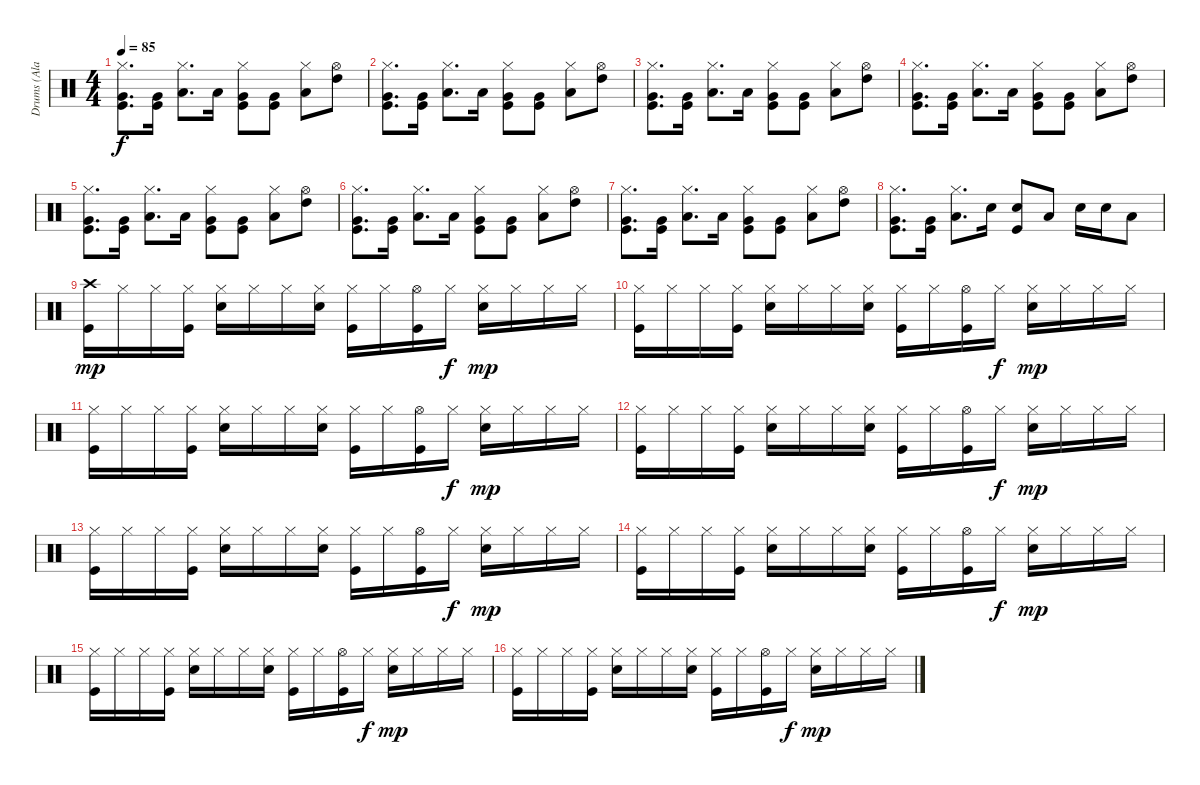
\track ("Drums (Alan White)" "Drums (Ala") {instrument percussion}
\staff {score}
\articulation defaults
\ts (4 4)
\tempo 85
\clef neutral
\ks c
("Hi-Hat (closed)" "Very Low Tom (hit)" "Kick (hit)").8{d dy f} ("Very Low Tom (hit)" "Kick (hit)").16 ("Hi-Hat (closed)" "Low Tom (hit)").8{d} "Low Tom (hit)".16 ("Hi-Hat (closed)" "Very Low Tom (hit)" "Kick (hit)").8 ("Very Low Tom (hit)" "Kick (hit)").8 ("Hi-Hat (closed)" "Low Tom (hit)").8 ("Hi-Hat (open)" "High Tom (hit)").8 |
("Hi-Hat (closed)" "Very Low Tom (hit)" "Kick (hit)").8{d} ("Very Low Tom (hit)" "Kick (hit)").16 ("Hi-Hat (closed)" "Low Tom (hit)").8{d} "Low Tom (hit)".16 ("Hi-Hat (closed)" "Very Low Tom (hit)" "Kick (hit)").8 ("Very Low Tom (hit)" "Kick (hit)").8 ("Hi-Hat (closed)" "Low Tom (hit)").8 ("Hi-Hat (open)" "High Tom (hit)").8 |
("Hi-Hat (closed)" "Very Low Tom (hit)" "Kick (hit)").8{d} ("Very Low Tom (hit)" "Kick (hit)").16 ("Hi-Hat (closed)" "Low Tom (hit)").8{d} "Low Tom (hit)".16 ("Hi-Hat (closed)" "Very Low Tom (hit)" "Kick (hit)").8 ("Very Low Tom (hit)" "Kick (hit)").8 ("Hi-Hat (closed)" "Low Tom (hit)").8 ("Hi-Hat (open)" "High Tom (hit)").8 |
("Hi-Hat (closed)" "Very Low Tom (hit)" "Kick (hit)").8{d} ("Very Low Tom (hit)" "Kick (hit)").16 ("Hi-Hat (closed)" "Low Tom (hit)").8{d} "Low Tom (hit)".16 ("Hi-Hat (closed)" "Very Low Tom (hit)" "Kick (hit)").8 ("Very Low Tom (hit)" "Kick (hit)").8 ("Hi-Hat (closed)" "Low Tom (hit)").8 ("Hi-Hat (open)" "High Tom (hit)").8 |
("Hi-Hat (closed)" "Very Low Tom (hit)" "Kick (hit)").8{d} ("Very Low Tom (hit)" "Kick (hit)").16 ("Hi-Hat (closed)" "Low Tom (hit)").8{d} "Low Tom (hit)".16 ("Hi-Hat (closed)" "Very Low Tom (hit)" "Kick (hit)").8 ("Very Low Tom (hit)" "Kick (hit)").8 ("Hi-Hat (closed)" "Low Tom (hit)").8 ("Hi-Hat (open)" "High Tom (hit)").8 |
("Hi-Hat (closed)" "Very Low Tom (hit)" "Kick (hit)").8{d} ("Very Low Tom (hit)" "Kick (hit)").16 ("Hi-Hat (closed)" "Low Tom (hit)").8{d} "Low Tom (hit)".16 ("Hi-Hat (closed)" "Very Low Tom (hit)" "Kick (hit)").8 ("Very Low Tom (hit)" "Kick (hit)").8 ("Hi-Hat (closed)" "Low Tom (hit)").8 ("Hi-Hat (open)" "High Tom (hit)").8 |
("Hi-Hat (closed)" "Very Low Tom (hit)" "Kick (hit)").8{d} ("Very Low Tom (hit)" "Kick (hit)").16 ("Hi-Hat (closed)" "Low Tom (hit)").8{d} "Low Tom (hit)".16 ("Hi-Hat (closed)" "Very Low Tom (hit)" "Kick (hit)").8 ("Very Low Tom (hit)" "Kick (hit)").8 ("Hi-Hat (closed)" "Low Tom (hit)").8 ("Hi-Hat (open)" "High Tom (hit)").8 |
("Hi-Hat (closed)" "Very Low Tom (hit)" "Kick (hit)").8{d} ("Very Low Tom (hit)" "Kick (hit)").16 ("Hi-Hat (closed)" "Low Tom (hit)").8{d} "Snare (hit) 2".16 ("Snare (hit) 2" "Kick (hit)").8 "Low Tom (hit)".8 "Snare (hit) 2".16 "Snare (hit) 2".16 "Low Tom (hit)".8 |
("Crash high (hit)" "Kick (hit)").16{dy mp} "Hi-Hat (closed)".16 "Hi-Hat (closed)".16 ("Hi-Hat (closed)" "Kick (hit)").16 ("Hi-Hat (closed)" "Snare (hit) 2").16 "Hi-Hat (closed)".16 "Hi-Hat (closed)".16 ("Hi-Hat (closed)" "Snare (hit) 2").16 ("Hi-Hat (closed)" "Kick (hit)").16 "Hi-Hat (closed)".16 ("Hi-Hat (open)" "Kick (hit)").16 "Hi-Hat (closed)".16{dy f} ("Hi-Hat (closed)" "Snare (hit) 2").16{dy mp} "Hi-Hat (closed)".16 "Hi-Hat (closed)".16 "Hi-Hat (closed)".16 |
("Hi-Hat (closed)" "Kick (hit)").16 "Hi-Hat (closed)".16 "Hi-Hat (closed)".16 ("Hi-Hat (closed)" "Kick (hit)").16 ("Hi-Hat (closed)" "Snare (hit) 2").16 "Hi-Hat (closed)".16 "Hi-Hat (closed)".16 ("Hi-Hat (closed)" "Snare (hit) 2").16 ("Hi-Hat (closed)" "Kick (hit)").16 "Hi-Hat (closed)".16 ("Hi-Hat (open)" "Kick (hit)").16 "Hi-Hat (closed)".16{dy f} ("Hi-Hat (closed)" "Snare (hit) 2").16{dy mp} "Hi-Hat (closed)".16 "Hi-Hat (closed)".16 "Hi-Hat (closed)".16 |
("Hi-Hat (closed)" "Kick (hit)").16 "Hi-Hat (closed)".16 "Hi-Hat (closed)".16 ("Hi-Hat (closed)" "Kick (hit)").16 ("Hi-Hat (closed)" "Snare (hit) 2").16 "Hi-Hat (closed)".16 "Hi-Hat (closed)".16 ("Hi-Hat (closed)" "Snare (hit) 2").16 ("Hi-Hat (closed)" "Kick (hit)").16 "Hi-Hat (closed)".16 ("Hi-Hat (open)" "Kick (hit)").16 "Hi-Hat (closed)".16{dy f} ("Hi-Hat (closed)" "Snare (hit) 2").16{dy mp} "Hi-Hat (closed)".16 "Hi-Hat (closed)".16 "Hi-Hat (closed)".16 |
("Hi-Hat (closed)" "Kick (hit)").16 "Hi-Hat (closed)".16 "Hi-Hat (closed)".16 ("Hi-Hat (closed)" "Kick (hit)").16 ("Hi-Hat (closed)" "Snare (hit) 2").16 "Hi-Hat (closed)".16 "Hi-Hat (closed)".16 ("Hi-Hat (closed)" "Snare (hit) 2").16 ("Hi-Hat (closed)" "Kick (hit)").16 "Hi-Hat (closed)".16 ("Hi-Hat (open)" "Kick (hit)").16 "Hi-Hat (closed)".16{dy f} ("Hi-Hat (closed)" "Snare (hit) 2").16{dy mp} "Hi-Hat (closed)".16 "Hi-Hat (closed)".16 "Hi-Hat (closed)".16 |
("Hi-Hat (closed)" "Kick (hit)").16 "Hi-Hat (closed)".16 "Hi-Hat (closed)".16 ("Hi-Hat (closed)" "Kick (hit)").16 ("Hi-Hat (closed)" "Snare (hit) 2").16 "Hi-Hat (closed)".16 "Hi-Hat (closed)".16 ("Hi-Hat (closed)" "Snare (hit) 2").16 ("Hi-Hat (closed)" "Kick (hit)").16 "Hi-Hat (closed)".16 ("Hi-Hat (open)" "Kick (hit)").16 "Hi-Hat (closed)".16{dy f} ("Hi-Hat (closed)" "Snare (hit) 2").16{dy mp} "Hi-Hat (closed)".16 "Hi-Hat (closed)".16 "Hi-Hat (closed)".16 |
("Hi-Hat (closed)" "Kick (hit)").16 "Hi-Hat (closed)".16 "Hi-Hat (closed)".16 ("Hi-Hat (closed)" "Kick (hit)").16 ("Hi-Hat (closed)" "Snare (hit) 2").16 "Hi-Hat (closed)".16 "Hi-Hat (closed)".16 ("Hi-Hat (closed)" "Snare (hit) 2").16 ("Hi-Hat (closed)" "Kick (hit)").16 "Hi-Hat (closed)".16 ("Hi-Hat (open)" "Kick (hit)").16 "Hi-Hat (closed)".16{dy f} ("Hi-Hat (closed)" "Snare (hit) 2").16{dy mp} "Hi-Hat (closed)".16 "Hi-Hat (closed)".16 "Hi-Hat (closed)".16 |
("Hi-Hat (closed)" "Kick (hit)").16 "Hi-Hat (closed)".16 "Hi-Hat (closed)".16 ("Hi-Hat (closed)" "Kick (hit)").16 ("Hi-Hat (closed)" "Snare (hit) 2").16 "Hi-Hat (closed)".16 "Hi-Hat (closed)".16 ("Hi-Hat (closed)" "Snare (hit) 2").16 ("Hi-Hat (closed)" "Kick (hit)").16 "Hi-Hat (closed)".16 ("Hi-Hat (open)" "Kick (hit)").16 "Hi-Hat (closed)".16{dy f} ("Hi-Hat (closed)" "Snare (hit) 2").16{dy mp} "Hi-Hat (closed)".16 "Hi-Hat (closed)".16 "Hi-Hat (closed)".16 |
("Hi-Hat (closed)" "Kick (hit)").16 "Hi-Hat (closed)".16 "Hi-Hat (closed)".16 ("Hi-Hat (closed)" "Kick (hit)").16 ("Hi-Hat (closed)" "Snare (hit) 2").16 "Hi-Hat (closed)".16 "Hi-Hat (closed)".16 ("Hi-Hat (closed)" "Snare (hit) 2").16 ("Hi-Hat (closed)" "Kick (hit)").16 "Hi-Hat (closed)".16 ("Hi-Hat (open)" "Kick (hit)").16 "Hi-Hat (closed)".16{dy f} ("Hi-Hat (closed)" "Snare (hit) 2").16{dy mp} "Hi-Hat (closed)".16 "Hi-Hat (closed)".16 "Hi-Hat (closed)".16
